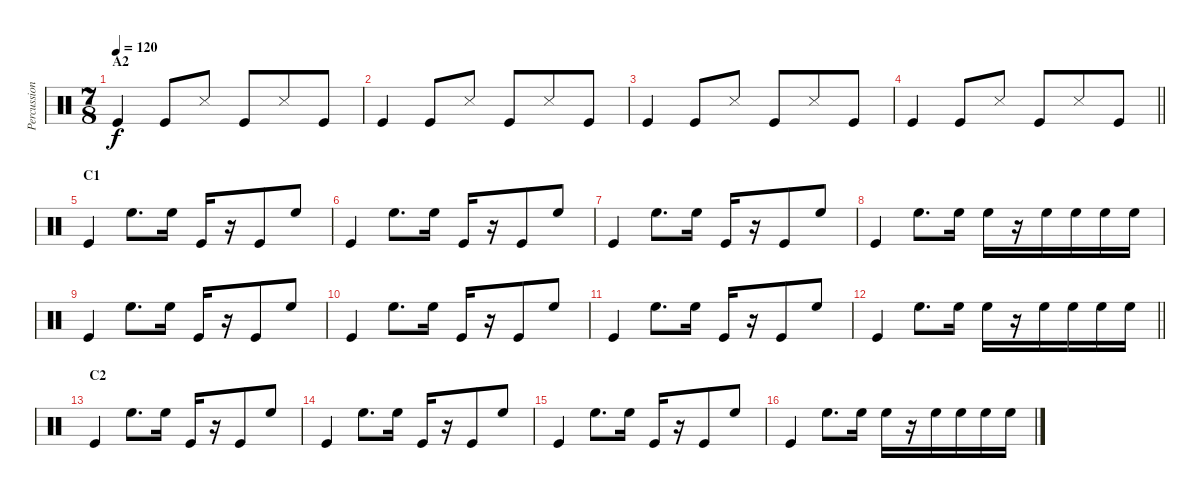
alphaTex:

\track ("Percussion" "Percussion") {instrument percussion}
\staff {score}
\articulation defaults
\ts (7 8)
\section ("" "A2")
\tempo 120
\clef neutral
\ks c "Kick (hit)".4{dy f} "Kick (hit)".8 "Snare (side stick) 3".8 "Kick (hit)".8 "Snare (side stick) 3".8 "Kick (hit)".8
|
"Kick (hit)".4 "Kick (hit)".8 "Snare (side stick) 3".8 "Kick (hit)".8 "Snare (side stick) 3".8 "Kick (hit)".8 |
"Kick (hit)".4 "Kick (hit)".8 "Snare (side stick) 3".8 "Kick (hit)".8 "Snare (side stick) 3".8 "Kick (hit)".8 |
\barLineRight lightlight "Kick (hit)".4 "Kick (hit)".8 "Snare (side stick) 3".8 "Kick (hit)".8 "Snare (side stick) 3".8 "Kick (hit)".8
|
\section ("" "C1")
"Kick (hit)".4 "High Floor Tom (hit)".8{d} "High Floor Tom (hit)".16 "Kick (hit)".16 r.16 "Kick (hit)".8 "High Floor Tom (hit)".8 |
"Kick (hit)".4 "High Floor Tom (hit)".8{d} "High Floor Tom (hit)".16 "Kick (hit)".16 r.16 "Kick (hit)".8 "High Floor Tom (hit)".8 |
"Kick (hit)".4 "High Floor Tom (hit)".8{d} "High Floor Tom (hit)".16 "Kick (hit)".16 r.16 "Kick (hit)".8 "High Floor Tom (hit)".8 |
"Kick (hit)".4 "High Floor Tom (hit)".8{d} "High Floor Tom (hit)".16 "High Floor Tom (hit)".16 r.16 "High Floor Tom (hit)".16 "High Floor Tom (hit)".16 "High Floor Tom (hit)".16 "High Floor Tom (hit)".16 |
"Kick (hit)".4 "High Floor Tom (hit)".8{d} "High Floor Tom (hit)".16 "Kick (hit)".16 r.16 "Kick (hit)".8 "High Floor Tom (hit)".8 |
"Kick (hit)".4 "High Floor Tom (hit)".8{d} "High Floor Tom (hit)".16 "Kick (hit)".16 r.16 "Kick (hit)".8 "High Floor Tom (hit)".8 |
"Kick (hit)".4 "High Floor Tom (hit)".8{d} "High Floor Tom (hit)".16 "Kick (hit)".16 r.16 "Kick (hit)".8 "High Floor Tom (hit)".8 |
\barLineRight lightlight "Kick (hit)".4 "High Floor Tom (hit)".8{d} "High Floor Tom (hit)".16 "High Floor Tom (hit)".16
r.16 "High Floor Tom (hit)".16 "High Floor Tom (hit)".16 "High Floor Tom (hit)".16 "High Floor Tom (hit)".16 |
\section ("" "C2")
"Kick (hit)".4 "High Floor Tom (hit)".8{d} "High Floor Tom (hit)".16 "Kick (hit)".16 r.16 "Kick (hit)".8 "High Floor Tom (hit)".8 |
"Kick (hit)".4 "High Floor Tom (hit)".8{d} "High Floor Tom (hit)".16 "Kick (hit)".16 r.16 "Kick (hit)".8 "High Floor Tom (hit)".8 |
"Kick (hit)".4 "High Floor Tom (hit)".8{d} "High Floor Tom (hit)".16 "Kick (hit)".16 r.16 "Kick (hit)".8 "High Floor Tom (hit)".8 |
"Kick (hit)".4 "High Floor Tom (hit)".8{d} "High Floor Tom (hit)".16 "High Floor Tom (hit)".16 r.16 "High Floor Tom (hit)".16 "High Floor Tom (hit)".16 "High Floor Tom (hit)".16 "High Floor Tom (hit)".16
